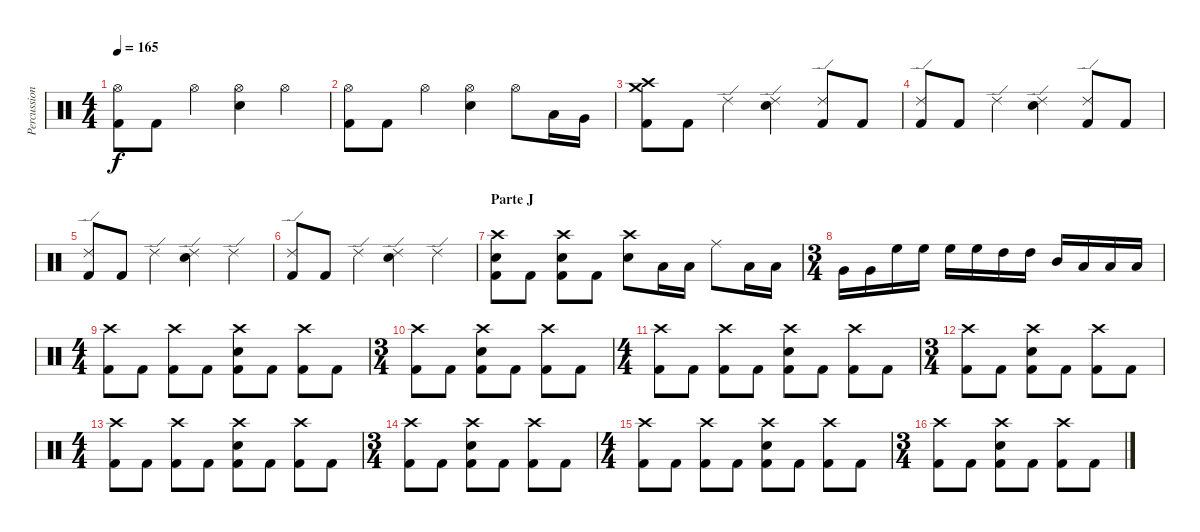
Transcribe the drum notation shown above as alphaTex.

\track ("Percussion" "Percussion") {instrument percussion}
\staff {score}
\articulation defaults
\ts (4 4)
\tempo 165
\clef neutral
\ks c
("Hi-Hat (open)" "Kick (hit) 2").8{dy f} "Kick (hit) 2".8 "Hi-Hat (open)".4 ("Hi-Hat (open)" "Snare (hit) 2").4 "Hi-Hat (open)".4 |
("Hi-Hat (open)" "Kick (hit) 2").8 "Kick (hit) 2".8 "Hi-Hat (open)".4 ("Hi-Hat (open)" "Snare (hit) 2").4 "Hi-Hat (open)".8 "Low Tom (hit)".16 "Very Low Tom (hit)".16 |
("Crash high (hit)" "Crash medium (hit)" "Kick (hit) 2").8 "Kick (hit) 2".8 "Ride (edge) 2".4 ("Ride (edge) 2" "Snare (hit) 2").4 ("Ride (edge) 2" "Kick (hit) 2").8 "Kick (hit) 2".8 |
("Ride (edge) 2" "Kick (hit) 2").8 "Kick (hit) 2".8 "Ride (edge) 2".4 ("Ride (edge) 2" "Snare (hit) 2").4 ("Ride (edge) 2" "Kick (hit) 2").8 "Kick (hit) 2".8 |
("Ride (edge) 2" "Kick (hit) 2").8 "Kick (hit) 2".8 "Ride (edge) 2".4 ("Ride (edge) 2" "Snare (hit) 2").4 "Ride (edge) 2".4 |
("Ride (edge) 2" "Kick (hit) 2").8 "Kick (hit) 2".8 "Ride (edge) 2".4 ("Ride (edge) 2" "Snare (hit) 2").4 "Ride (edge) 2".4 |
\section ("" "Parte J")
("Crash high (hit)" "Snare (hit) 2" "Kick (hit) 2").8 "Kick (hit) 2".8 ("Crash high (hit)" "Snare (hit) 2" "Kick (hit) 2").8 "Kick (hit) 2".8 ("Crash high (hit)" "Snare (hit) 2").8 "Low Tom (hit)".16 "Low Tom (hit)".16 "Ride (middle)".8 "Low Tom (hit)".16 "Low Tom (hit)".16 |
\ts (3 4)
"Very Low Tom (hit)".16 "Very Low Tom (hit)".16 "High Floor Tom (hit)".16 "High Floor Tom (hit)".16 "High Floor Tom (hit)".16 "High Floor Tom (hit)".16 "High Tom (hit)".16 "High Tom (hit)".16 "Mid Tom (hit)".16 "Low Tom (hit)".16 "Low Tom (hit)".16 "Low Tom (hit)".16 |
\ts (4 4)
("Crash high (hit)" "Kick (hit) 2").8 "Kick (hit) 2".8 ("Crash high (hit)" "Kick (hit) 2").8 "Kick (hit) 2".8 ("Crash high (hit)" "Snare (hit) 2" "Kick (hit) 2").8 "Kick (hit) 2".8 ("Crash high (hit)" "Kick (hit) 2").8 "Kick (hit) 2".8 |
\ts (3 4)
("Crash high (hit)" "Kick (hit) 2").8 "Kick (hit) 2".8 ("Crash high (hit)" "Snare (hit) 2" "Kick (hit) 2").8 "Kick (hit) 2".8 ("Crash high (hit)" "Kick (hit) 2").8 "Kick (hit) 2".8 |
\ts (4 4)
("Crash high (hit)" "Kick (hit) 2").8 "Kick (hit) 2".8 ("Crash high (hit)" "Kick (hit) 2").8 "Kick (hit) 2".8 ("Crash high (hit)" "Snare (hit) 2" "Kick (hit) 2").8 "Kick (hit) 2".8 ("Crash high (hit)" "Kick (hit) 2").8 "Kick (hit) 2".8 |
\ts (3 4)
("Crash high (hit)" "Kick (hit) 2").8 "Kick (hit) 2".8 ("Crash high (hit)" "Snare (hit) 2" "Kick (hit) 2").8 "Kick (hit) 2".8 ("Crash high (hit)" "Kick (hit) 2").8 "Kick (hit) 2".8 |
\ts (4 4)
("Crash high (hit)" "Kick (hit) 2").8 "Kick (hit) 2".8 ("Crash high (hit)" "Kick (hit) 2").8 "Kick (hit) 2".8 ("Crash high (hit)" "Snare (hit) 2" "Kick (hit) 2").8 "Kick (hit) 2".8 ("Crash high (hit)" "Kick (hit) 2").8 "Kick (hit) 2".8 |
\ts (3 4)
("Crash high (hit)" "Kick (hit) 2").8 "Kick (hit) 2".8 ("Crash high (hit)" "Snare (hit) 2" "Kick (hit) 2").8 "Kick (hit) 2".8 ("Crash high (hit)" "Kick (hit) 2").8 "Kick (hit) 2".8 |
\ts (4 4)
("Crash high (hit)" "Kick (hit) 2").8 "Kick (hit) 2".8 ("Crash high (hit)" "Kick (hit) 2").8 "Kick (hit) 2".8 ("Crash high (hit)" "Snare (hit) 2" "Kick (hit) 2").8 "Kick (hit) 2".8 ("Crash high (hit)" "Kick (hit) 2").8 "Kick (hit) 2".8 |
\ts (3 4)
("Crash high (hit)" "Kick (hit) 2").8 "Kick (hit) 2".8 ("Crash high (hit)" "Snare (hit) 2" "Kick (hit) 2").8 "Kick (hit) 2".8 ("Crash high (hit)" "Kick (hit) 2").8 "Kick (hit) 2".8
